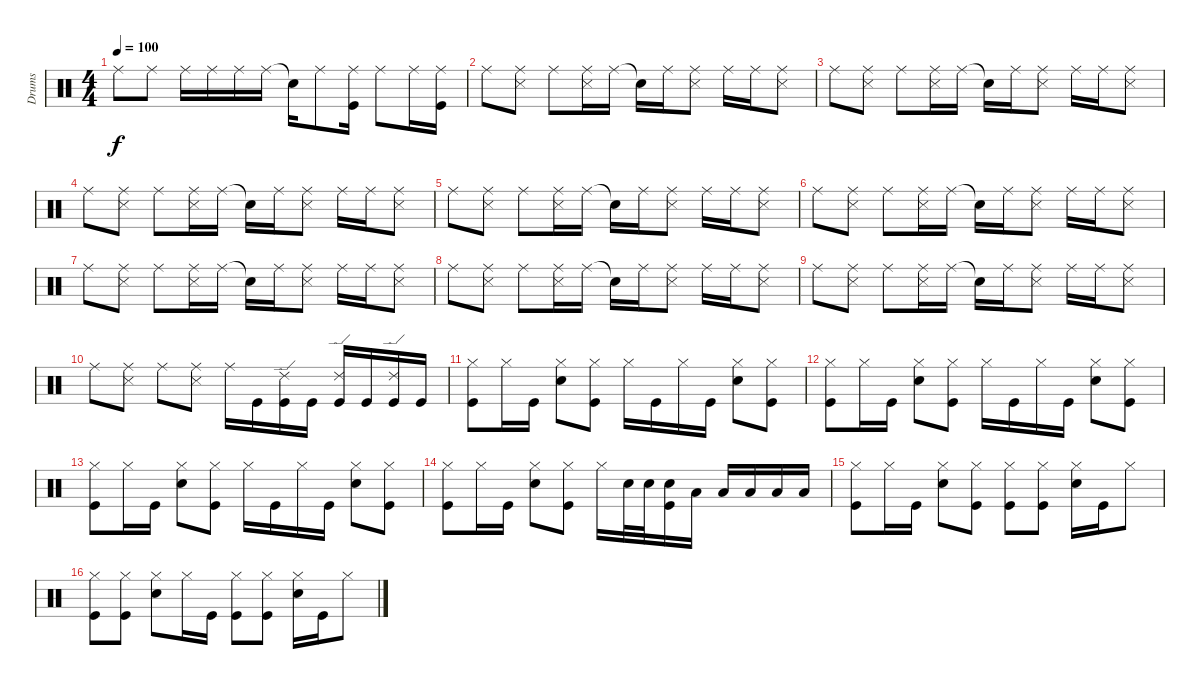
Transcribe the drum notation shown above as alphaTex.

\track ("Drums" "Drums") {instrument percussion}
\staff {score}
\articulation defaults
\ts (4 4)
\tempo 100
\clef neutral
\ks c "Ride (middle)".8{dy f} "Ride (middle)".8 "Ride (middle)".16 "Ride (middle)".16 "Ride (middle)".16 "Ride (middle)".16 "Snare (hit)"{t}.16 "Ride (middle)".8
("Ride (middle)" "Kick (hit)").16 "Ride (middle)".8 "Ride (middle)".16 ("Ride (middle)" "Kick (hit)").16 |
"Ride (middle)".8 ("Ride (middle)" "Snare (side stick) 3").8 "Ride (middle)".8 ("Ride (middle)" "Snare (side stick) 3").16 "Ride (middle)".16 "Snare (hit)"{t}.16 "Ride (middle)".16 ("Ride (middle)" "Snare (side stick) 3").8 "Ride (middle)".16 "Ride (middle)".16 ("Ride (middle)" "Snare (side stick) 3").8 |
"Ride (middle)".8 ("Ride (middle)" "Snare (side stick) 3").8 "Ride (middle)".8 ("Ride (middle)" "Snare (side stick) 3").16 "Ride (middle)".16 "Snare (hit)"{t}.16 "Ride (middle)".16 ("Ride (middle)" "Snare (side stick) 3").8 "Ride (middle)".16 "Ride (middle)".16 ("Ride (middle)" "Snare (side stick) 3").8 |
"Ride (middle)".8 ("Ride (middle)" "Snare (side stick) 3").8 "Ride (middle)".8 ("Ride (middle)" "Snare (side stick) 3").16 "Ride (middle)".16 "Snare (hit)"{t}.16 "Ride (middle)".16 ("Ride (middle)" "Snare (side stick) 3").8 "Ride (middle)".16 "Ride (middle)".16 ("Ride (middle)" "Snare (side stick) 3").8 |
"Ride (middle)".8 ("Ride (middle)" "Snare (side stick) 3").8 "Ride (middle)".8 ("Ride (middle)" "Snare (side stick) 3").16 "Ride (middle)".16 "Snare (hit)"{t}.16 "Ride (middle)".16 ("Ride (middle)" "Snare (side stick) 3").8 "Ride (middle)".16 "Ride (middle)".16 ("Ride (middle)" "Snare (side stick) 3").8 |
"Ride (middle)".8 ("Ride (middle)" "Snare (side stick) 3").8 "Ride (middle)".8 ("Ride (middle)" "Snare (side stick) 3").16 "Ride (middle)".16 "Snare (hit)"{t}.16 "Ride (middle)".16 ("Ride (middle)" "Snare (side stick) 3").8 "Ride (middle)".16 "Ride (middle)".16 ("Ride (middle)" "Snare (side stick) 3").8 |
"Ride (middle)".8 ("Ride (middle)" "Snare (side stick) 3").8 "Ride (middle)".8 ("Ride (middle)" "Snare (side stick) 3").16 "Ride (middle)".16 "Snare (hit)"{t}.16 "Ride (middle)".16 ("Ride (middle)" "Snare (side stick) 3").8 "Ride (middle)".16 "Ride (middle)".16 ("Ride (middle)" "Snare (side stick) 3").8 |
"Ride (middle)".8 ("Ride (middle)" "Snare (side stick) 3").8 "Ride (middle)".8 ("Ride (middle)" "Snare (side stick) 3").16 "Ride (middle)".16 "Snare (hit)"{t}.16 "Ride (middle)".16 ("Ride (middle)" "Snare (side stick) 3").8 "Ride (middle)".16 "Ride (middle)".16 ("Ride (middle)" "Snare (side stick) 3").8 |
"Ride (middle)".8 ("Ride (middle)" "Snare (side stick) 3").8 "Ride (middle)".8 ("Ride (middle)" "Snare (side stick) 3").16 "Ride (middle)".16 "Snare (hit)"{t}.16 "Ride (middle)".16 ("Ride (middle)" "Snare (side stick) 3").8 "Ride (middle)".16 "Ride (middle)".16 ("Ride (middle)" "Snare (side stick) 3").8 |
"Ride (middle)".8 ("Ride (middle)" "Snare (side stick) 3").8 "Ride (middle)".8 ("Ride (middle)" "Snare (side stick) 3").8 "Ride (middle)".16 "Kick (hit)".16 ("Ride (edge) 2" "Kick (hit)").16 "Kick (hit)".16 ("Ride (edge) 2" "Kick (hit)").16 "Kick (hit)".16 ("Ride (edge) 2" "Kick (hit)").16 "Kick (hit)".16 |
("Hi-Hat (closed)" "Kick (hit)").8 "Hi-Hat (closed)".16 "Kick (hit)".16 ("Hi-Hat (closed)" "Snare (hit) 2").8 ("Hi-Hat (closed)" "Kick (hit)").8 "Hi-Hat (closed)".16 "Kick (hit)".16 "Hi-Hat (closed)".16 "Kick (hit)".16 ("Hi-Hat (closed)" "Snare (hit) 2").8 ("Hi-Hat (closed)" "Kick (hit)").8 |
("Hi-Hat (closed)" "Kick (hit)").8 "Hi-Hat (closed)".16 "Kick (hit)".16 ("Hi-Hat (closed)" "Snare (hit) 2").8 ("Hi-Hat (closed)" "Kick (hit)").8 "Hi-Hat (closed)".16 "Kick (hit)".16 "Hi-Hat (closed)".16 "Kick (hit)".16 ("Hi-Hat (closed)" "Snare (hit) 2").8 ("Hi-Hat (closed)" "Kick (hit)").8 |
("Hi-Hat (closed)" "Kick (hit)").8 "Hi-Hat (closed)".16 "Kick (hit)".16 ("Hi-Hat (closed)" "Snare (hit) 2").8 ("Hi-Hat (closed)" "Kick (hit)").8 "Hi-Hat (closed)".16 "Kick (hit)".16 "Hi-Hat (closed)".16 "Kick (hit)".16 ("Hi-Hat (closed)" "Snare (hit) 2").8 ("Hi-Hat (closed)" "Kick (hit)").8 |
("Hi-Hat (closed)" "Kick (hit)").8 "Hi-Hat (closed)".16 "Kick (hit)".16 ("Hi-Hat (closed)" "Snare (hit) 2").8 ("Hi-Hat (closed)" "Kick (hit)").8 "Hi-Hat (closed)".16 "Snare (hit) 2".32 "Snare (hit) 2".32 ("Snare (hit) 2" "Kick (hit)").16 "Low Floor Tom (hit)".16 "Low Floor Tom (hit)".16 "Low Floor Tom (hit)".16 "Low Floor Tom (hit)".16 "Low Floor Tom (hit)".16 |
("Hi-Hat (closed)" "Kick (hit)").8 "Hi-Hat (closed)".16 "Kick (hit)".16 ("Hi-Hat (closed)" "Snare (hit) 2").8 ("Hi-Hat (closed)" "Kick (hit)").8 ("Hi-Hat (closed)" "Kick (hit)").8 ("Hi-Hat (closed)" "Kick (hit)").8 ("Hi-Hat (closed)" "Snare (hit) 2").16 "Kick (hit)".16 "Hi-Hat (closed)".8 |
("Hi-Hat (closed)" "Kick (hit)").8 ("Hi-Hat (closed)" "Kick (hit)").8 ("Hi-Hat (closed)" "Snare (hit) 2").8 "Hi-Hat (closed)".16 "Kick (hit)".16 ("Hi-Hat (closed)" "Kick (hit)").8 ("Hi-Hat (closed)" "Kick (hit)").8 ("Hi-Hat (closed)" "Snare (hit) 2").16 "Kick (hit)".16 "Hi-Hat (closed)".8
